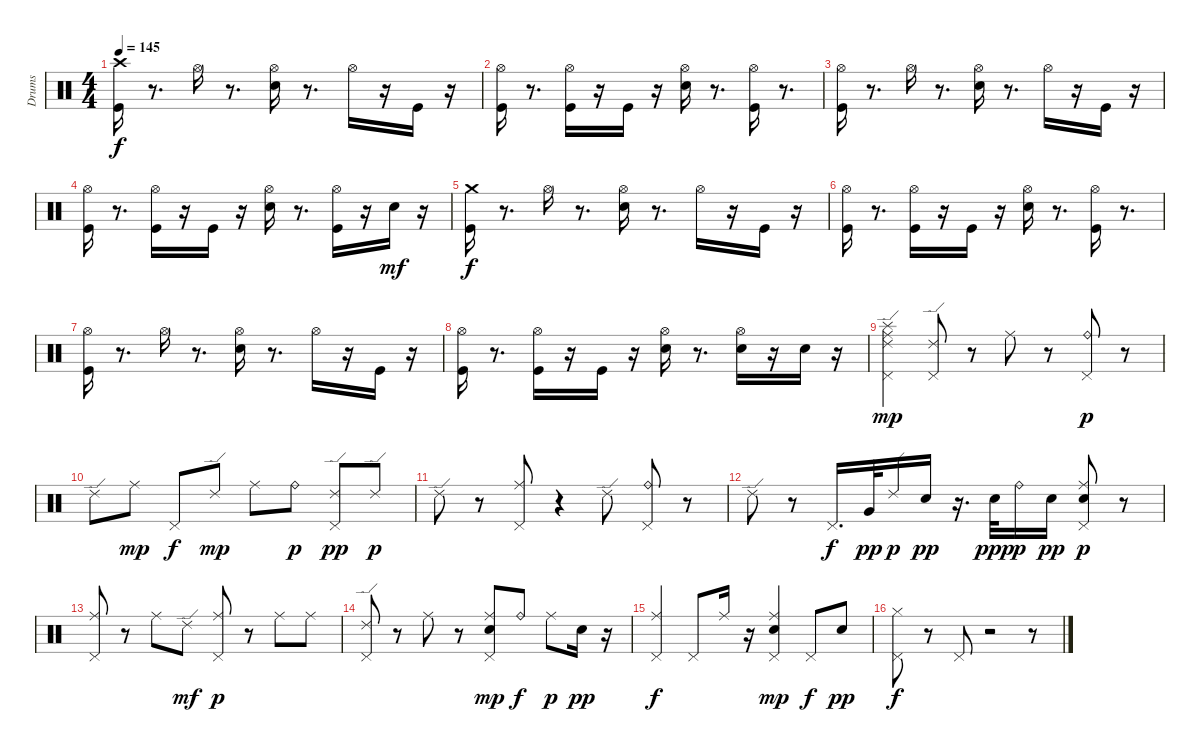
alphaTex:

\track ("Drums" "Drums") {instrument percussion}
\staff {score}
\articulation defaults
\ts (4 4)
\tempo 145
\clef neutral
\ks c
("Kick (hit)" "Crash high (hit)").16{dy f} r.8{d} "Hi-Hat (open)".16 r.8{d} ("Electric Snare (hit)" "Hi-Hat (open)").16 r.8{d} "Hi-Hat (open)".16 r.16 "Kick (hit)".16 r.16 |
("Kick (hit)" "Hi-Hat (open)").16 r.8{d} ("Kick (hit)" "Hi-Hat (open)").16 r.16 "Kick (hit)".16 r.16 ("Electric Snare (hit)" "Hi-Hat (open)").16 r.8{d} ("Kick (hit)" "Hi-Hat (open)").16 r.8{d} |
("Kick (hit)" "Hi-Hat (open)").16 r.8{d} "Hi-Hat (open)".16 r.8{d} ("Electric Snare (hit)" "Hi-Hat (open)").16 r.8{d} "Hi-Hat (open)".16 r.16 "Kick (hit)".16 r.16 |
("Kick (hit)" "Hi-Hat (open)").16 r.8{d} ("Kick (hit)" "Hi-Hat (open)").16 r.16 "Kick (hit)".16 r.16 ("Electric Snare (hit)" "Hi-Hat (open)").16 r.8{d} ("Kick (hit)" "Hi-Hat (open)").16 r.16 "Electric Snare (hit)".16{dy mf} r.16 |
("Kick (hit)" "Crash medium (hit)").16{dy f} r.8{d} "Hi-Hat (open)".16 r.8{d} ("Electric Snare (hit)" "Hi-Hat (open)").16 r.8{d} "Hi-Hat (open)".16 r.16 "Kick (hit)".16 r.16 |
("Kick (hit)" "Hi-Hat (open)").16 r.8{d} ("Kick (hit)" "Hi-Hat (open)").16 r.16 "Kick (hit)".16 r.16 ("Electric Snare (hit)" "Hi-Hat (open)").16 r.8{d} ("Kick (hit)" "Hi-Hat (open)").16 r.8{d} |
("Kick (hit)" "Hi-Hat (open)").16 r.8{d} "Hi-Hat (open)".16 r.8{d} ("Electric Snare (hit)" "Hi-Hat (open)").16 r.8{d} "Hi-Hat (open)".16 r.16 "Kick (hit)".16 r.16 |
("Kick (hit)" "Hi-Hat (open)").16 r.8{d} ("Kick (hit)" "Hi-Hat (open)").16 r.16 "Kick (hit)".16 r.16 ("Electric Snare (hit)" "Hi-Hat (open)").16 r.8{d} ("Snare (hit) 2" "Hi-Hat (open)").16 r.16 "Snare (hit) 2".16 r.16 |
("Splash (hit)" "Ride (middle)" "Pedal Hi-Hat (hit)" "Ride (edge) 2").4{dy mp} ("Pedal Hi-Hat (hit)" "Ride (edge) 2").8 r.8 "Ride (middle)".8 r.8 ("Ride (bell)" "Pedal Hi-Hat (hit)").8{dy p} r.8 |
"Ride (edge) 2".8 "Ride (middle)".8{dy mp} "Pedal Hi-Hat (hit)".8{dy f} "Ride (edge) 2".8{dy mp} "Ride (middle)".8 "Ride (bell)".8{dy p} ("Pedal Hi-Hat (hit)" "Ride (edge) 2").8{dy pp} "Ride (edge) 2".8{dy p} |
"Ride (edge) 2".8 r.8 ("Pedal Hi-Hat (hit)" "Ride (middle)").8 r.4 "Ride (edge) 2".8 ("Pedal Hi-Hat (hit)" "Ride (bell)").8 r.8 |
"Ride (edge) 2".8 r.8 "Pedal Hi-Hat (hit)".16{d dy f} "Very Low Tom (hit)".32{dy pp} "Ride (edge) 2".16{dy p} "Snare (hit) 2".16{dy pp} r.16{d} "Electric Snare (hit)".32{dy ppp} "Ride (bell)".16{dy p} "Electric Snare (hit)".16{dy pp} ("Electric Snare (hit)" "Pedal Hi-Hat (hit)" "Ride (middle)").8{dy p} r.8 |
("Pedal Hi-Hat (hit)" "Ride (middle)").8 r.8 "Ride (middle)".8 "Ride (edge) 2".8{dy mf} ("Pedal Hi-Hat (hit)" "Ride (middle)").8{dy p} r.8 "Ride (middle)".8 "Ride (middle)".8 |
("Ride (edge) 2" "Pedal Hi-Hat (hit)").8 r.8 "Ride (middle)".8 r.8 ("Pedal Hi-Hat (hit)" "Ride (middle)" "Electric Snare (hit)").8{dy mp} "Ride (bell)".8{dy f} "Ride (middle)".8{dy p} "Electric Snare (hit)".16{dy pp} r.16 |
("Pedal Hi-Hat (hit)" "Ride (middle)").4{dy f} "Pedal Hi-Hat (hit)".8 "Ride (middle)".16 r.16 ("Pedal Hi-Hat (hit)" "Ride (middle)" "Electric Snare (hit)").4{dy mp} "Pedal Hi-Hat (hit)".8{dy f} "Electric Snare (hit)".8{dy pp} |
("Pedal Hi-Hat (hit)" "Hi-Hat (closed)").8{dy f} r.8 "Pedal Hi-Hat (hit)".8 r.2 r.8
